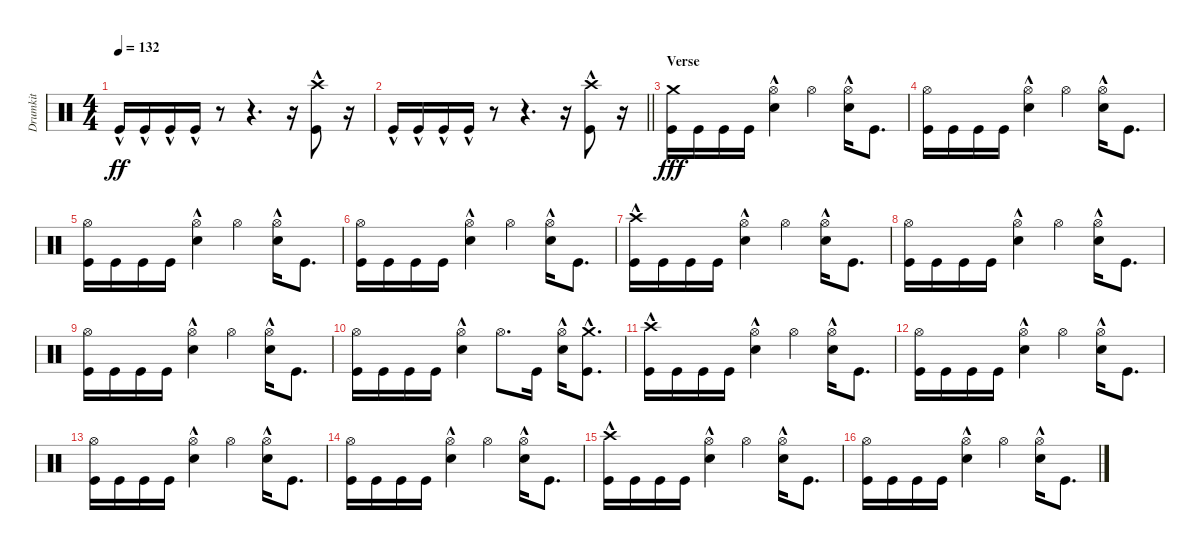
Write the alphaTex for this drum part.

\track ("Drumkit" "Drumkit") {instrument percussion}
\staff {score}
\articulation defaults
\ts (4 4)
\tempo 132
\clef neutral
\ks c "Kick (hit)"{hac}.16{dy ff} "Kick (hit)"{hac}.16 "Kick (hit)"{hac}.16 "Kick (hit)"{hac}.16
r.8 r.4{d} r.16 ("Kick (hit)"{hac} "Crash high (hit)"{hac}).8 r.16 |
\barLineRight lightlight "Kick (hit)"{hac}.16 "Kick (hit)"{hac}.16 "Kick (hit)"{hac}.16 "Kick (hit)"{hac}.16
r.8 r.4{d} r.16 ("Kick (hit)"{hac} "Crash high (hit)"{hac}).8 r.16 |
\section ("" "Verse")
("Kick (hit)" "Crash medium (hit)").16{dy fff} "Kick (hit)".16 "Kick (hit)".16 "Kick (hit)".16 ("Snare (hit) 2"{hac} "Hi-Hat (open)").4 "Hi-Hat (open)".4 ("Snare (hit) 2"{hac} "Hi-Hat (open)").16 "Kick (hit)".8{d} |
("Kick (hit)" "Hi-Hat (open)").16 "Kick (hit)".16 "Kick (hit)".16 "Kick (hit)".16 ("Snare (hit) 2"{hac} "Hi-Hat (open)").4 "Hi-Hat (open)".4 ("Snare (hit) 2"{hac} "Hi-Hat (open)").16 "Kick (hit)".8{d} |
("Kick (hit)" "Hi-Hat (open)").16 "Kick (hit)".16 "Kick (hit)".16 "Kick (hit)".16 ("Snare (hit) 2"{hac} "Hi-Hat (open)").4 "Hi-Hat (open)".4 ("Snare (hit) 2"{hac} "Hi-Hat (open)").16 "Kick (hit)".8{d} |
("Kick (hit)" "Hi-Hat (open)").16 "Kick (hit)".16 "Kick (hit)".16 "Kick (hit)".16 ("Snare (hit) 2"{hac} "Hi-Hat (open)").4 "Hi-Hat (open)".4 ("Snare (hit) 2"{hac} "Hi-Hat (open)").16 "Kick (hit)".8{d} |
("Kick (hit)" "Crash high (hit)"{hac}).16 "Kick (hit)".16 "Kick (hit)".16 "Kick (hit)".16 ("Snare (hit) 2"{hac} "Hi-Hat (open)").4 "Hi-Hat (open)".4 ("Snare (hit) 2"{hac} "Hi-Hat (open)").16 "Kick (hit)".8{d} |
("Kick (hit)" "Hi-Hat (open)").16 "Kick (hit)".16 "Kick (hit)".16 "Kick (hit)".16 ("Snare (hit) 2"{hac} "Hi-Hat (open)").4 "Hi-Hat (open)".4 ("Snare (hit) 2"{hac} "Hi-Hat (open)").16 "Kick (hit)".8{d} |
("Kick (hit)" "Hi-Hat (open)").16 "Kick (hit)".16 "Kick (hit)".16 "Kick (hit)".16 ("Snare (hit) 2"{hac} "Hi-Hat (open)").4 "Hi-Hat (open)".4 ("Snare (hit) 2"{hac} "Hi-Hat (open)").16 "Kick (hit)".8{d} |
("Kick (hit)" "Hi-Hat (open)").16 "Kick (hit)".16 "Kick (hit)".16 "Kick (hit)".16 ("Snare (hit) 2"{hac} "Hi-Hat (open)").4 "Hi-Hat (open)".8{d} "Kick (hit)".16 ("Snare (hit) 2"{hac} "Hi-Hat (open)").16 ("Kick (hit)" "Crash medium (hit)"{hac}).8{d} |
("Kick (hit)" "Crash high (hit)"{hac}).16 "Kick (hit)".16 "Kick (hit)".16 "Kick (hit)".16 ("Snare (hit) 2"{hac} "Hi-Hat (open)").4 "Hi-Hat (open)".4 ("Snare (hit) 2"{hac} "Hi-Hat (open)").16 "Kick (hit)".8{d} |
("Kick (hit)" "Hi-Hat (open)").16 "Kick (hit)".16 "Kick (hit)".16 "Kick (hit)".16 ("Snare (hit) 2"{hac} "Hi-Hat (open)").4 "Hi-Hat (open)".4 ("Snare (hit) 2"{hac} "Hi-Hat (open)").16 "Kick (hit)".8{d} |
("Kick (hit)" "Hi-Hat (open)").16 "Kick (hit)".16 "Kick (hit)".16 "Kick (hit)".16 ("Snare (hit) 2"{hac} "Hi-Hat (open)").4 "Hi-Hat (open)".4 ("Snare (hit) 2"{hac} "Hi-Hat (open)").16 "Kick (hit)".8{d} |
("Kick (hit)" "Hi-Hat (open)").16 "Kick (hit)".16 "Kick (hit)".16 "Kick (hit)".16 ("Snare (hit) 2"{hac} "Hi-Hat (open)").4 "Hi-Hat (open)".4 ("Snare (hit) 2"{hac} "Hi-Hat (open)").16 "Kick (hit)".8{d} |
("Kick (hit)" "Crash high (hit)"{hac}).16 "Kick (hit)".16 "Kick (hit)".16 "Kick (hit)".16 ("Snare (hit) 2"{hac} "Hi-Hat (open)").4 "Hi-Hat (open)".4 ("Snare (hit) 2"{hac} "Hi-Hat (open)").16 "Kick (hit)".8{d} |
("Kick (hit)" "Hi-Hat (open)").16 "Kick (hit)".16 "Kick (hit)".16 "Kick (hit)".16 ("Snare (hit) 2"{hac} "Hi-Hat (open)").4 "Hi-Hat (open)".4 ("Snare (hit) 2"{hac} "Hi-Hat (open)").16 "Kick (hit)".8{d}
